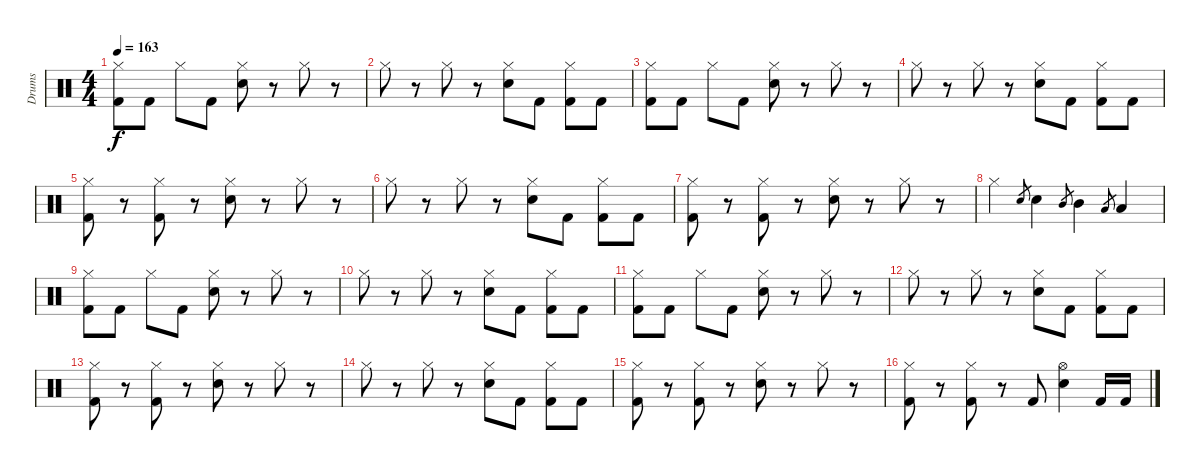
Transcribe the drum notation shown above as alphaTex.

\track ("Drums" "Drums") {instrument percussion}
\staff {score}
\articulation defaults
\ts (4 4)
\tempo 163
\clef neutral
\ks c
("Hi-Hat (closed)" "Kick (hit) 2").8{dy f} "Kick (hit) 2".8 "Hi-Hat (closed)".8 "Kick (hit) 2".8 ("Hi-Hat (closed)" "Electric Snare (hit)").8 r.8 "Hi-Hat (closed)".8 r.8 |
"Hi-Hat (closed)".8 r.8 "Hi-Hat (closed)".8 r.8 ("Hi-Hat (closed)" "Electric Snare (hit)").8 "Kick (hit) 2".8 ("Hi-Hat (closed)" "Kick (hit) 2").8 "Kick (hit) 2".8 |
("Hi-Hat (closed)" "Kick (hit) 2").8 "Kick (hit) 2".8 "Hi-Hat (closed)".8 "Kick (hit) 2".8 ("Hi-Hat (closed)" "Electric Snare (hit)").8 r.8 "Hi-Hat (closed)".8 r.8 |
"Hi-Hat (closed)".8 r.8 "Hi-Hat (closed)".8 r.8 ("Hi-Hat (closed)" "Electric Snare (hit)").8 "Kick (hit) 2".8 ("Hi-Hat (closed)" "Kick (hit) 2").8 "Kick (hit) 2".8 |
("Hi-Hat (closed)" "Kick (hit) 2").8 r.8 ("Hi-Hat (closed)" "Kick (hit) 2").8 r.8 ("Hi-Hat (closed)" "Electric Snare (hit)").8 r.8 "Hi-Hat (closed)".8 r.8 |
"Hi-Hat (closed)".8 r.8 "Hi-Hat (closed)".8 r.8 ("Hi-Hat (closed)" "Electric Snare (hit)").8 "Kick (hit) 2".8 ("Hi-Hat (closed)" "Kick (hit) 2").8 "Kick (hit) 2".8 |
("Hi-Hat (closed)" "Kick (hit) 2").8 r.8 ("Hi-Hat (closed)" "Kick (hit) 2").8 r.8 ("Hi-Hat (closed)" "Electric Snare (hit)").8 r.8 "Hi-Hat (closed)".8 r.8 |
"Hi-Hat (closed)".4 "Electric Snare (hit)".8{gr} "Electric Snare (hit)".4 "Mid Tom (hit)".8{gr} "Mid Tom (hit)".4 "Low Tom (hit)".8{gr} "Low Tom (hit)".4 |
("Hi-Hat (closed)" "Kick (hit) 2").8 "Kick (hit) 2".8 "Hi-Hat (closed)".8 "Kick (hit) 2".8 ("Hi-Hat (closed)" "Electric Snare (hit)").8 r.8 "Hi-Hat (closed)".8 r.8 |
"Hi-Hat (closed)".8 r.8 "Hi-Hat (closed)".8 r.8 ("Hi-Hat (closed)" "Electric Snare (hit)").8 "Kick (hit) 2".8 ("Hi-Hat (closed)" "Kick (hit) 2").8 "Kick (hit) 2".8 |
("Hi-Hat (closed)" "Kick (hit) 2").8 "Kick (hit) 2".8 "Hi-Hat (closed)".8 "Kick (hit) 2".8 ("Hi-Hat (closed)" "Electric Snare (hit)").8 r.8 "Hi-Hat (closed)".8 r.8 |
"Hi-Hat (closed)".8 r.8 "Hi-Hat (closed)".8 r.8 ("Hi-Hat (closed)" "Electric Snare (hit)").8 "Kick (hit) 2".8 ("Hi-Hat (closed)" "Kick (hit) 2").8 "Kick (hit) 2".8 |
("Hi-Hat (closed)" "Kick (hit) 2").8 r.8 ("Hi-Hat (closed)" "Kick (hit) 2").8 r.8 ("Hi-Hat (closed)" "Electric Snare (hit)").8 r.8 "Hi-Hat (closed)".8 r.8 |
"Hi-Hat (closed)".8 r.8 "Hi-Hat (closed)".8 r.8 ("Hi-Hat (closed)" "Electric Snare (hit)").8 "Kick (hit) 2".8 ("Hi-Hat (closed)" "Kick (hit) 2").8 "Kick (hit) 2".8 |
("Hi-Hat (closed)" "Kick (hit) 2").8 r.8 ("Hi-Hat (closed)" "Kick (hit) 2").8 r.8 ("Hi-Hat (closed)" "Electric Snare (hit)").8 r.8 "Hi-Hat (closed)".8 r.8 |
("Hi-Hat (closed)" "Kick (hit) 2").8 r.8 ("Hi-Hat (closed)" "Kick (hit) 2").8 r.8 "Kick (hit) 2".8 ("Hi-Hat (open)" "Electric Snare (hit)").4 "Kick (hit) 2".16 "Kick (hit) 2".16
